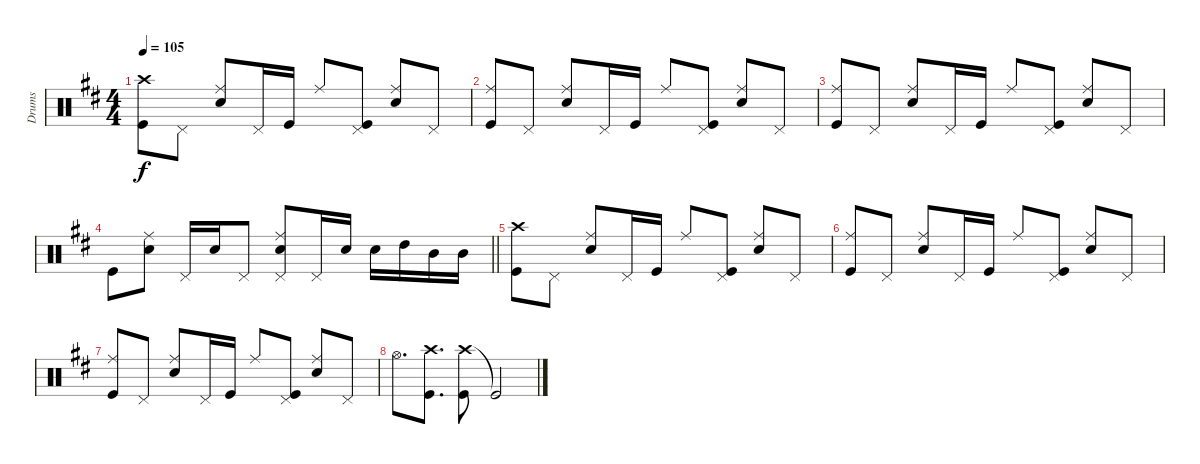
\track ("Drums" "Drums") {instrument percussion}
\staff {score}
\articulation defaults
\ts (4 4)
\tempo 105
\clef neutral
\ks d
("Crash high (hit)" "Kick (hit)").8{dy f} "Pedal Hi-Hat (hit)".8 ("Ride (middle)" "Snare (hit) 2").8 "Pedal Hi-Hat (hit)".16 "Kick (hit)".16 "Ride (middle)".8 ("Kick (hit)" "Pedal Hi-Hat (hit)").8 ("Snare (hit) 2" "Ride (middle)").8 "Pedal Hi-Hat (hit)".8 |
("Ride (middle)" "Kick (hit)").8 "Pedal Hi-Hat (hit)".8 ("Ride (middle)" "Snare (hit) 2").8 "Pedal Hi-Hat (hit)".16 "Kick (hit)".16 "Ride (middle)".8 ("Kick (hit)" "Pedal Hi-Hat (hit)").8 ("Snare (hit) 2" "Ride (middle)").8 "Pedal Hi-Hat (hit)".8 |
("Ride (middle)" "Kick (hit)").8 "Pedal Hi-Hat (hit)".8 ("Ride (middle)" "Snare (hit) 2").8 "Pedal Hi-Hat (hit)".16 "Kick (hit)".16 "Ride (middle)".8 ("Kick (hit)" "Pedal Hi-Hat (hit)").8 ("Snare (hit) 2" "Ride (middle)").8 "Pedal Hi-Hat (hit)".8 |
\barLineRight lightlight "Kick (hit)".8
("Ride (middle)" "Snare (hit) 2").8 "Pedal Hi-Hat (hit)".16 "Snare (hit) 2".16 "Pedal Hi-Hat (hit)".8 ("Snare (hit) 2" "Ride (middle)" "Pedal Hi-Hat (hit)").8 "Pedal Hi-Hat (hit)".16 "Snare (hit) 2".16 "Snare (hit) 2".16 "High Tom (hit)".16 "Mid Tom (hit)".16 "Mid Tom (hit)".16 |
("Crash high (hit)" "Kick (hit)").8 "Pedal Hi-Hat (hit)".8 ("Ride (middle)" "Snare (hit) 2").8 "Pedal Hi-Hat (hit)".16 "Kick (hit)".16 "Ride (middle)".8 ("Kick (hit)" "Pedal Hi-Hat (hit)").8 ("Snare (hit) 2" "Ride (middle)").8 "Pedal Hi-Hat (hit)".8 |
("Ride (middle)" "Kick (hit)").8 "Pedal Hi-Hat (hit)".8 ("Ride (middle)" "Snare (hit) 2").8 "Pedal Hi-Hat (hit)".16 "Kick (hit)".16 "Ride (middle)".8 ("Kick (hit)" "Pedal Hi-Hat (hit)").8 ("Snare (hit) 2" "Ride (middle)").8 "Pedal Hi-Hat (hit)".8 |
("Ride (middle)" "Kick (hit)").8 "Pedal Hi-Hat (hit)".8 ("Ride (middle)" "Snare (hit) 2").8 "Pedal Hi-Hat (hit)".16 "Kick (hit)".16 "Ride (middle)".8 ("Kick (hit)" "Pedal Hi-Hat (hit)").8 ("Snare (hit) 2" "Ride (middle)").8 "Pedal Hi-Hat (hit)".8 |
"Hi-Hat (open)".8{d} ("Crash high (hit)" "Kick (hit)").8{d} ("Crash high (hit)" "Kick (hit)").8 "Kick (hit)"{t}.2
